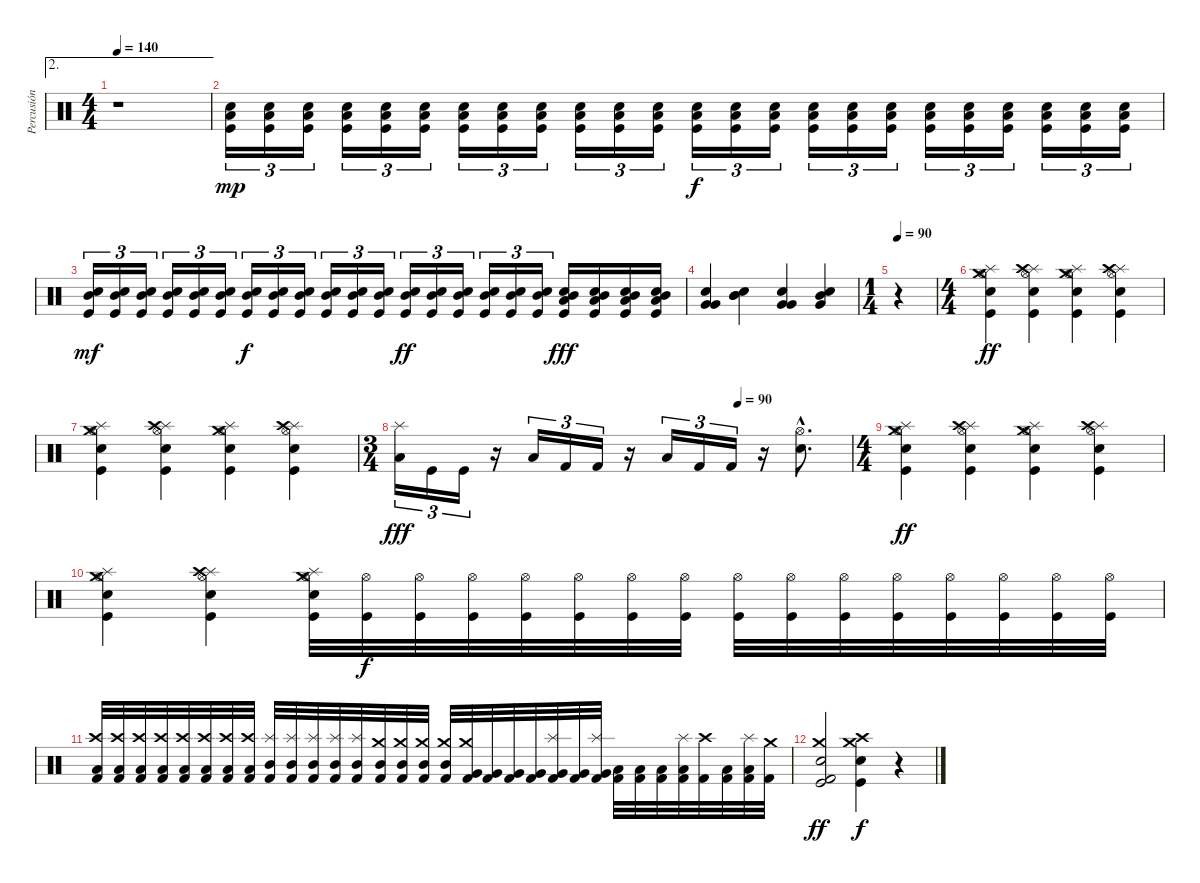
\track ("Percusión" "Percusión") {instrument percussion}
\staff {score}
\articulation defaults
\ae 2
\ts (4 4)
\tempo 140
\clef neutral
\ks c
r.1{dy f} |
("Low Floor Tom (hit)" "Kick (hit)" "Electric Snare (hit)").16{tu (3 2) dy mp volume 10} ("Low Floor Tom (hit)" "Kick (hit)" "Electric Snare (hit)").16{tu (3 2)} ("Low Floor Tom (hit)" "Kick (hit)" "Electric Snare (hit)").16{tu (3 2)} ("Low Floor Tom (hit)" "Kick (hit)" "Electric Snare (hit)").16{tu (3 2)} ("Low Floor Tom (hit)" "Kick (hit)" "Electric Snare (hit)").16{tu (3 2)} ("Low Floor Tom (hit)" "Kick (hit)" "Electric Snare (hit)").16{tu (3 2)} ("Low Floor Tom (hit)" "Kick (hit)" "Electric Snare (hit)").16{tu (3 2)} ("Low Floor Tom (hit)" "Kick (hit)" "Electric Snare (hit)").16{tu (3 2)} ("Low Floor Tom (hit)" "Kick (hit)" "Electric Snare (hit)").16{tu (3 2)} ("Low Floor Tom (hit)" "Kick (hit)" "Electric Snare (hit)").16{tu (3 2)} ("Low Floor Tom (hit)" "Kick (hit)" "Electric Snare (hit)").16{tu (3 2)} ("Low Floor Tom (hit)" "Kick (hit)" "Electric Snare (hit)").16{tu (3 2)} ("Low Floor Tom (hit)" "Kick (hit)" "Electric Snare (hit)").16{tu (3 2) dy f} ("Low Floor Tom (hit)" "Kick (hit)" "Electric Snare (hit)").16{tu (3 2)} ("Low Floor Tom (hit)" "Kick (hit)" "Electric Snare (hit)").16{tu (3 2)} ("Low Floor Tom (hit)" "Kick (hit)" "Electric Snare (hit)").16{tu (3 2)} ("Low Floor Tom (hit)" "Kick (hit)" "Electric Snare (hit)").16{tu (3 2)} ("Low Floor Tom (hit)" "Kick (hit)" "Electric Snare (hit)").16{tu (3 2)} ("Low Floor Tom (hit)" "Kick (hit)" "Electric Snare (hit)").16{tu (3 2)} ("Low Floor Tom (hit)" "Kick (hit)" "Electric Snare (hit)").16{tu (3 2)} ("Low Floor Tom (hit)" "Kick (hit)" "Electric Snare (hit)").16{tu (3 2)} ("Low Floor Tom (hit)" "Kick (hit)" "Electric Snare (hit)").16{tu (3 2)} ("Low Floor Tom (hit)" "Kick (hit)" "Electric Snare (hit)").16{tu (3 2)} ("Low Floor Tom (hit)" "Kick (hit)" "Electric Snare (hit)").16{tu (3 2)} |
("Mid Tom (hit)" "Kick (hit)" "Electric Snare (hit)").16{tu (3 2) dy mf volume 16} ("Mid Tom (hit)" "Kick (hit)" "Electric Snare (hit)").16{tu (3 2)} ("Mid Tom (hit)" "Kick (hit)" "Electric Snare (hit)").16{tu (3 2)} ("Mid Tom (hit)" "Kick (hit)" "Electric Snare (hit)").16{tu (3 2)} ("Mid Tom (hit)" "Kick (hit)" "Electric Snare (hit)").16{tu (3 2)} ("Mid Tom (hit)" "Kick (hit)" "Electric Snare (hit)").16{tu (3 2)} ("Mid Tom (hit)" "Kick (hit)" "Electric Snare (hit)").16{tu (3 2) dy f} ("Mid Tom (hit)" "Kick (hit)" "Electric Snare (hit)").16{tu (3 2)} ("Mid Tom (hit)" "Kick (hit)" "Electric Snare (hit)").16{tu (3 2)} ("Mid Tom (hit)" "Kick (hit)" "Electric Snare (hit)").16{tu (3 2)} ("Mid Tom (hit)" "Kick (hit)" "Electric Snare (hit)").16{tu (3 2)} ("Mid Tom (hit)" "Kick (hit)" "Electric Snare (hit)").16{tu (3 2)} ("Mid Tom (hit)" "Kick (hit)" "Electric Snare (hit)").16{tu (3 2) dy ff} ("Mid Tom (hit)" "Kick (hit)" "Electric Snare (hit)").16{tu (3 2)} ("Mid Tom (hit)" "Kick (hit)" "Electric Snare (hit)").16{tu (3 2)} ("Mid Tom (hit)" "Kick (hit)" "Electric Snare (hit)").16{tu (3 2)} ("Mid Tom (hit)" "Kick (hit)" "Electric Snare (hit)").16{tu (3 2)} ("Mid Tom (hit)" "Kick (hit)" "Electric Snare (hit)").16{tu (3 2)} ("Low Floor Tom (hit)" "Mid Tom (hit)" "Kick (hit)" "Electric Snare (hit)").16{dy fff} ("Low Floor Tom (hit)" "Mid Tom (hit)" "Kick (hit)" "Electric Snare (hit)").16 ("Low Floor Tom (hit)" "Mid Tom (hit)" "Kick (hit)" "Electric Snare (hit)").16 ("Low Floor Tom (hit)" "Mid Tom (hit)" "Kick (hit)" "Electric Snare (hit)").16 |
("Very Low Tom (hit)" "Very Low Tom (hit)" "Electric Snare (hit)").4 ("Mid Tom (hit)" "Mid Tom (hit)" "Electric Snare (hit)").4 ("Very Low Tom (hit)" "Very Low Tom (hit)" "Electric Snare (hit)").4 ("Mid Tom (hit)" "Very Low Tom (hit)" "Electric Snare (hit)").4 |
\ts (1 4)
\tempo 90
r.4 |
\ts (4 4)
("Splash (hit)" "Crash medium (hit)" "Hi-Hat (open)" "Kick (hit)" "Electric Snare (hit)").4{dy ff} ("Splash (hit)" "Crash high (hit)" "Hi-Hat (open)" "Kick (hit)" "Electric Snare (hit)").4 ("Splash (hit)" "Crash medium (hit)" "Hi-Hat (open)" "Kick (hit)" "Electric Snare (hit)").4 ("Splash (hit)" "Crash high (hit)" "Hi-Hat (open)" "Kick (hit)" "Electric Snare (hit)").4 |
("Splash (hit)" "Crash medium (hit)" "Hi-Hat (open)" "Kick (hit)" "Electric Snare (hit)").4 ("Splash (hit)" "Crash high (hit)" "Hi-Hat (open)" "Kick (hit)" "Electric Snare (hit)").4 ("Splash (hit)" "Crash medium (hit)" "Hi-Hat (open)" "Kick (hit)" "Electric Snare (hit)").4 ("Splash (hit)" "Crash high (hit)" "Hi-Hat (open)" "Kick (hit)" "Electric Snare (hit)").4 |
\ts (3 4)
\tempo (90 0.75)
("Splash (hit)" "Low Floor Tom (hit)").16{tu (3 2) dy fff} "Kick (hit)".16{tu (3 2)} "Kick (hit)".16{tu (3 2)} r.16 "Low Floor Tom (hit)".16{tu (3 2)} "Kick (hit) 2".16{tu (3 2)} "Kick (hit) 2".16{tu (3 2)} r.16 "Low Floor Tom (hit)".16{tu (3 2)} "Kick (hit) 2".16{tu (3 2)} "Kick (hit) 2".16{tu (3 2)} r.16 ("Hi-Hat (open)"{hac} "Electric Snare (hit)"{hac}).8{d} |
\ts (4 4)
("Splash (hit)" "Crash medium (hit)" "Hi-Hat (open)" "Kick (hit)" "Electric Snare (hit)").4{dy ff} ("Splash (hit)" "Crash high (hit)" "Hi-Hat (open)" "Kick (hit)" "Electric Snare (hit)").4 ("Splash (hit)" "Crash medium (hit)" "Hi-Hat (open)" "Kick (hit)" "Electric Snare (hit)").4 ("Splash (hit)" "Crash high (hit)" "Hi-Hat (open)" "Kick (hit)" "Electric Snare (hit)").4 |
("Splash (hit)" "Crash medium (hit)" "Hi-Hat (open)" "Kick (hit)" "Electric Snare (hit)").4 ("Splash (hit)" "Crash high (hit)" "Hi-Hat (open)" "Kick (hit)" "Electric Snare (hit)").4 ("Splash (hit)" "Crash medium (hit)" "Hi-Hat (open)" "Kick (hit)" "Electric Snare (hit)").32 ("Hi-Hat (open)" "Kick (hit)").32{dy f} ("Hi-Hat (open)" "Kick (hit)").32 ("Hi-Hat (open)" "Kick (hit)").32 ("Hi-Hat (open)" "Kick (hit)").32 ("Hi-Hat (open)" "Kick (hit)").32 ("Hi-Hat (open)" "Kick (hit)").32 ("Hi-Hat (open)" "Kick (hit)").32 ("Hi-Hat (open)" "Kick (hit)").32 ("Hi-Hat (open)" "Kick (hit)").32 ("Hi-Hat (open)" "Kick (hit)").32 ("Hi-Hat (open)" "Kick (hit)").32 ("Hi-Hat (open)" "Kick (hit)").32 ("Hi-Hat (open)" "Kick (hit)").32 ("Hi-Hat (open)" "Kick (hit)").32 ("Hi-Hat (open)" "Kick (hit)").32 |
("Low Floor Tom (hit)" "Crash high (hit)" "Kick (hit) 2").32 ("Low Floor Tom (hit)" "Crash high (hit)" "Kick (hit) 2").32 ("Low Floor Tom (hit)" "Crash high (hit)" "Kick (hit) 2").32 ("Low Floor Tom (hit)" "Crash high (hit)" "Kick (hit) 2").32 ("Low Floor Tom (hit)" "Crash high (hit)" "Kick (hit) 2").32 ("Low Floor Tom (hit)" "Crash high (hit)" "Kick (hit) 2").32 ("Low Floor Tom (hit)" "Crash high (hit)" "Kick (hit) 2").32 ("Low Floor Tom (hit)" "Crash high (hit)" "Kick (hit) 2").32 ("Mid Tom (hit)" "Splash (hit)" "Kick (hit) 2").32 ("Mid Tom (hit)" "Splash (hit)" "Kick (hit) 2").32 ("Mid Tom (hit)" "Splash (hit)" "Kick (hit) 2").32 ("Mid Tom (hit)" "Splash (hit)" "Kick (hit) 2").32 ("Mid Tom (hit)" "Splash (hit)" "Kick (hit) 2").32 ("Mid Tom (hit)" "Crash medium (hit)" "Kick (hit) 2").32 ("Mid Tom (hit)" "Crash medium (hit)" "Kick (hit) 2").32 ("Mid Tom (hit)" "Crash medium (hit)" "Kick (hit) 2").32 ("Mid Tom (hit)" "Crash medium (hit)" "Kick (hit) 2").32 ("Very Low Tom (hit)" "Crash medium (hit)" "Kick (hit) 2").32 ("Very Low Tom (hit)" "Kick (hit) 2").32 ("Very Low Tom (hit)" "Kick (hit) 2").32 ("Very Low Tom (hit)" "Kick (hit) 2").32 ("Very Low Tom (hit)" "Splash (hit)" "Kick (hit) 2").32 ("Very Low Tom (hit)" "Kick (hit) 2").32 ("Very Low Tom (hit)" "Splash (hit)" "Kick (hit) 2").32 ("Low Floor Tom (hit)" "Kick (hit) 2").32 ("Low Floor Tom (hit)" "Kick (hit) 2").32 ("Low Floor Tom (hit)" "Kick (hit) 2").32 ("Low Floor Tom (hit)" "Splash (hit)" "Kick (hit) 2").32 ("Crash high (hit)" "Kick (hit) 2").32 ("Low Floor Tom (hit)" "Kick (hit) 2").32 ("Low Floor Tom (hit)" "Splash (hit)" "Kick (hit) 2").32 ("Crash medium (hit)" "Kick (hit) 2").32 |
("Crash medium (hit)" "Kick (hit)" "Kick (hit) 2" "Electric Snare (hit)").2{dy ff} ("Crash high (hit)" "Kick (hit)" "Crash medium (hit)" "Electric Snare (hit)").4{dy f} r.4
